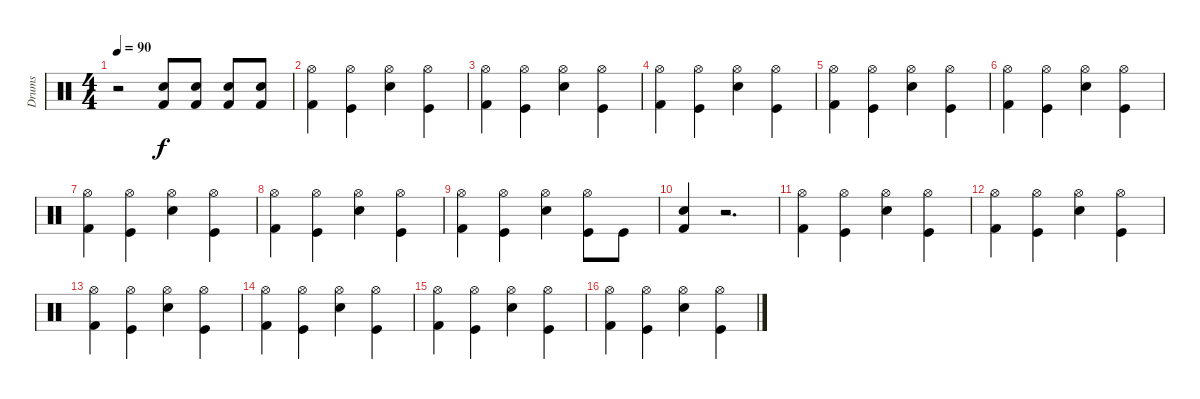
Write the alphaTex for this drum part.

\track ("Drums" "Drums") {instrument percussion}
\staff {score}
\articulation defaults
\ts (4 4)
\tempo 90
\clef neutral
\ks c
r.2{dy f} ("Electric Snare (hit)" "Kick (hit) 2").8 ("Electric Snare (hit)" "Kick (hit) 2").8 ("Electric Snare (hit)" "Kick (hit) 2").8 ("Electric Snare (hit)" "Kick (hit) 2").8 |
("Hi-Hat (open)" "Kick (hit) 2").4 ("Hi-Hat (open)" "Kick (hit)").4 ("Hi-Hat (open)" "Snare (hit) 2").4 ("Hi-Hat (open)" "Kick (hit)").4 |
("Hi-Hat (open)" "Kick (hit) 2").4 ("Hi-Hat (open)" "Kick (hit)").4 ("Hi-Hat (open)" "Snare (hit) 2").4 ("Hi-Hat (open)" "Kick (hit)").4 |
("Hi-Hat (open)" "Kick (hit) 2").4 ("Hi-Hat (open)" "Kick (hit)").4 ("Hi-Hat (open)" "Snare (hit) 2").4 ("Hi-Hat (open)" "Kick (hit)").4 |
("Hi-Hat (open)" "Kick (hit) 2").4 ("Hi-Hat (open)" "Kick (hit)").4 ("Hi-Hat (open)" "Snare (hit) 2").4 ("Hi-Hat (open)" "Kick (hit)").4 |
("Hi-Hat (open)" "Kick (hit) 2").4 ("Hi-Hat (open)" "Kick (hit)").4 ("Hi-Hat (open)" "Snare (hit) 2").4 ("Hi-Hat (open)" "Kick (hit)").4 |
("Hi-Hat (open)" "Kick (hit) 2").4 ("Hi-Hat (open)" "Kick (hit)").4 ("Hi-Hat (open)" "Snare (hit) 2").4 ("Hi-Hat (open)" "Kick (hit)").4 |
("Hi-Hat (open)" "Kick (hit) 2").4 ("Hi-Hat (open)" "Kick (hit)").4 ("Hi-Hat (open)" "Snare (hit) 2").4 ("Hi-Hat (open)" "Kick (hit)").4 |
("Hi-Hat (open)" "Kick (hit) 2").4 ("Hi-Hat (open)" "Kick (hit)").4 ("Hi-Hat (open)" "Snare (hit) 2").4 ("Hi-Hat (open)" "Kick (hit)").8 "Kick (hit)".8 |
("Electric Snare (hit)" "Kick (hit) 2").4 r.2{d} |
("Hi-Hat (open)" "Kick (hit) 2").4 ("Hi-Hat (open)" "Kick (hit)").4 ("Hi-Hat (open)" "Snare (hit) 2").4 ("Hi-Hat (open)" "Kick (hit)").4 |
("Hi-Hat (open)" "Kick (hit) 2").4 ("Hi-Hat (open)" "Kick (hit)").4 ("Hi-Hat (open)" "Snare (hit) 2").4 ("Hi-Hat (open)" "Kick (hit)").4 |
("Hi-Hat (open)" "Kick (hit) 2").4 ("Hi-Hat (open)" "Kick (hit)").4 ("Hi-Hat (open)" "Snare (hit) 2").4 ("Hi-Hat (open)" "Kick (hit)").4 |
("Hi-Hat (open)" "Kick (hit) 2").4 ("Hi-Hat (open)" "Kick (hit)").4 ("Hi-Hat (open)" "Snare (hit) 2").4 ("Hi-Hat (open)" "Kick (hit)").4 |
("Hi-Hat (open)" "Kick (hit) 2").4 ("Hi-Hat (open)" "Kick (hit)").4 ("Hi-Hat (open)" "Snare (hit) 2").4 ("Hi-Hat (open)" "Kick (hit)").4 |
("Hi-Hat (open)" "Kick (hit) 2").4 ("Hi-Hat (open)" "Kick (hit)").4 ("Hi-Hat (open)" "Snare (hit) 2").4 ("Hi-Hat (open)" "Kick (hit)").4
